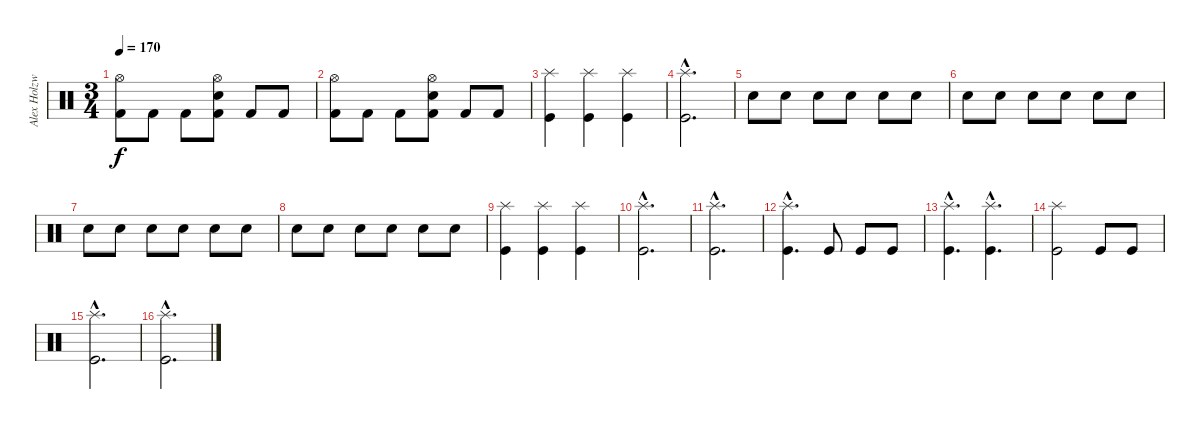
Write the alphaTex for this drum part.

\track ("Alex Holzwarth - Drums" "Alex Holzw") {instrument percussion}
\staff {score}
\articulation defaults
\ts (3 4)
\tempo 170
\clef neutral
\ks c
("Hi-Hat (open)" "Kick (hit) 2").8{dy f} "Kick (hit) 2".8 "Kick (hit) 2".8 ("Hi-Hat (open)" "Snare (hit) 2" "Kick (hit) 2").8 "Kick (hit) 2".8 "Kick (hit) 2".8 |
("Hi-Hat (open)" "Kick (hit) 2").8 "Kick (hit) 2".8 "Kick (hit) 2".8 ("Hi-Hat (open)" "Snare (hit) 2" "Kick (hit) 2").8 "Kick (hit) 2".8 "Kick (hit) 2".8 |
("Splash (hit)" "Kick (hit)").4 ("Splash (hit)" "Kick (hit)").4 ("Splash (hit)" "Kick (hit)").4 |
("Splash (hit)"{hac} "Kick (hit)"{hac}).2{d} |
"Snare (hit) 2".8{volume 16} "Snare (hit) 2".8 "Snare (hit) 2".8 "Snare (hit) 2".8 "Snare (hit) 2".8 "Snare (hit) 2".8 |
"Snare (hit) 2".8 "Snare (hit) 2".8 "Snare (hit) 2".8 "Snare (hit) 2".8 "Snare (hit) 2".8 "Snare (hit) 2".8 |
"Snare (hit) 2".8 "Snare (hit) 2".8 "Snare (hit) 2".8 "Snare (hit) 2".8 "Snare (hit) 2".8 "Snare (hit) 2".8 |
"Snare (hit) 2".8 "Snare (hit) 2".8 "Snare (hit) 2".8 "Snare (hit) 2".8 "Snare (hit) 2".8 "Snare (hit) 2".8 |
("Splash (hit)" "Kick (hit)").4 ("Splash (hit)" "Kick (hit)").4 ("Splash (hit)" "Kick (hit)").4 |
("Splash (hit)"{hac} "Kick (hit)"{hac}).2{d} |
("Splash (hit)"{hac} "Kick (hit)"{hac}).2{d} |
("Splash (hit)"{hac} "Kick (hit)"{hac}).4{d} "Kick (hit)".8 "Kick (hit)".8 "Kick (hit)".8 |
("Splash (hit)"{hac} "Kick (hit)"{hac}).4{d} ("Splash (hit)"{hac} "Kick (hit)"{hac}).4{d} |
("Splash (hit)" "Kick (hit)").2 "Kick (hit)".8 "Kick (hit)".8 |
("Splash (hit)"{hac} "Kick (hit)"{hac}).2{d} |
("Splash (hit)"{hac} "Kick (hit)"{hac}).2{d}
